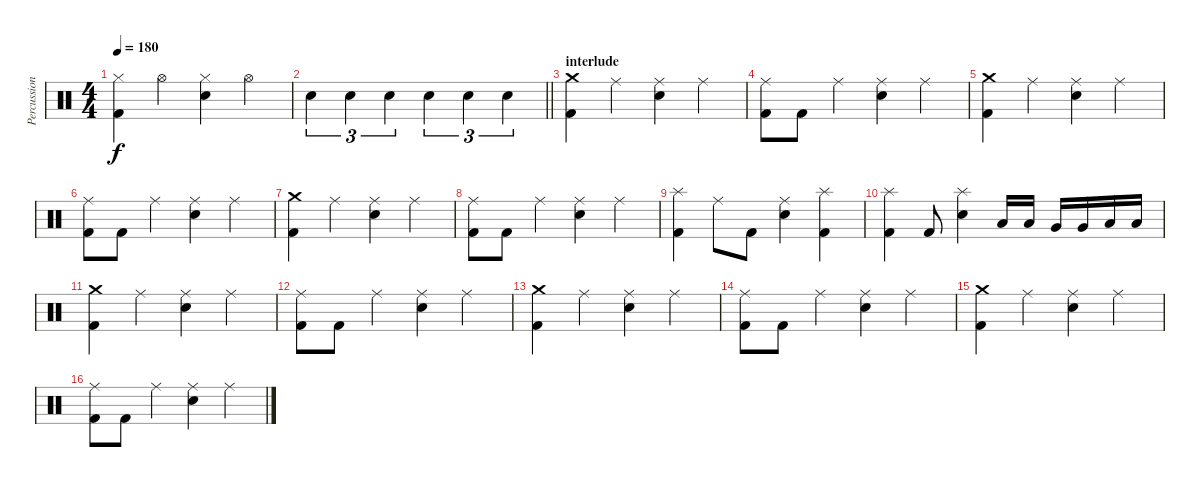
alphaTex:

\track ("Percussion" "Percussion") {instrument percussion}
\staff {score}
\articulation defaults
\ts (4 4)
\tempo 180
\clef neutral
\ks c
("Hi-Hat (closed)" "Kick (hit) 2").4{dy f} "Hi-Hat (open)".4 ("Hi-Hat (closed)" "Electric Snare (hit)").4 "Hi-Hat (open)".4 |
\barLineRight lightlight "Electric Snare (hit)".4{tu (3 2)} "Electric Snare (hit)".4{tu (3 2)} "Electric Snare (hit)".4{tu (3 2)} "Electric Snare (hit)".4{tu (3 2)} "Electric Snare (hit)".4{tu (3 2)} "Electric Snare (hit)".4{tu (3 2)}
|
\section ("" "interlude")
("Crash medium (hit)" "Kick (hit) 2").4 "Ride (middle)".4 ("Ride (middle)" "Electric Snare (hit)").4 "Ride (middle)".4 |
("Ride (middle)" "Kick (hit) 2").8 "Kick (hit) 2".8 "Ride (middle)".4 ("Ride (middle)" "Electric Snare (hit)").4 "Ride (middle)".4 |
("Crash medium (hit)" "Kick (hit) 2").4 "Ride (middle)".4 ("Ride (middle)" "Electric Snare (hit)").4 "Ride (middle)".4 |
("Ride (middle)" "Kick (hit) 2").8 "Kick (hit) 2".8 "Ride (middle)".4 ("Ride (middle)" "Electric Snare (hit)").4 "Ride (middle)".4 |
("Crash medium (hit)" "Kick (hit) 2").4 "Ride (middle)".4 ("Ride (middle)" "Electric Snare (hit)").4 "Ride (middle)".4 |
("Ride (middle)" "Kick (hit) 2").8 "Kick (hit) 2".8 "Ride (middle)".4 ("Ride (middle)" "Electric Snare (hit)").4 "Ride (middle)".4 |
("Splash (hit)" "Kick (hit) 2").4 "Ride (middle)".8 "Kick (hit) 2".8 ("Ride (middle)" "Electric Snare (hit)").4 ("Splash (hit)" "Kick (hit) 2").4 |
("Splash (hit)" "Kick (hit) 2").4 "Kick (hit) 2".8 ("Splash (hit)" "Electric Snare (hit)").4 "Low Tom (hit)".16 "Low Tom (hit)".16 "Very Low Tom (hit)".16 "Very Low Tom (hit)".16 "Low Floor Tom (hit)".16 "Low Floor Tom (hit)".16 |
("Crash medium (hit)" "Kick (hit) 2").4 "Ride (middle)".4 ("Ride (middle)" "Electric Snare (hit)").4 "Ride (middle)".4 |
("Ride (middle)" "Kick (hit) 2").8 "Kick (hit) 2".8 "Ride (middle)".4 ("Ride (middle)" "Electric Snare (hit)").4 "Ride (middle)".4 |
("Crash medium (hit)" "Kick (hit) 2").4 "Ride (middle)".4 ("Ride (middle)" "Electric Snare (hit)").4 "Ride (middle)".4 |
("Ride (middle)" "Kick (hit) 2").8 "Kick (hit) 2".8 "Ride (middle)".4 ("Ride (middle)" "Electric Snare (hit)").4 "Ride (middle)".4 |
("Crash medium (hit)" "Kick (hit) 2").4 "Ride (middle)".4 ("Ride (middle)" "Electric Snare (hit)").4 "Ride (middle)".4 |
("Ride (middle)" "Kick (hit) 2").8 "Kick (hit) 2".8 "Ride (middle)".4 ("Ride (middle)" "Electric Snare (hit)").4 "Ride (middle)".4
